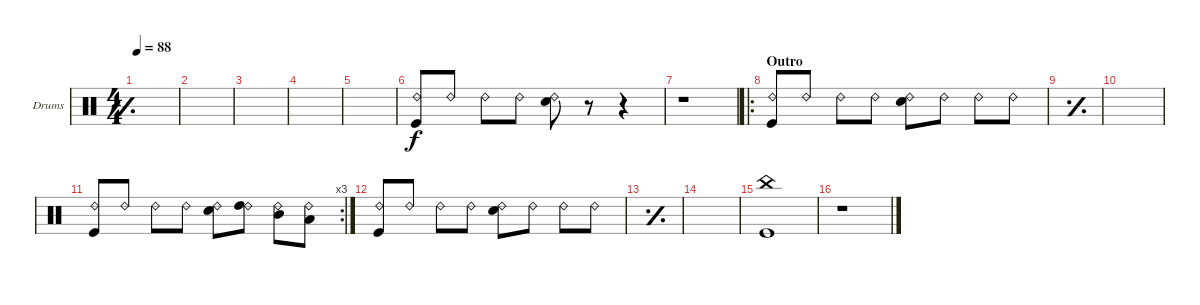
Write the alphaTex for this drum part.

\defaultSystemsLayout 4
\bracketExtendMode groupsimilarinstruments
\firstSystemTrackNameOrientation horizontal
\otherSystemsTrackNameOrientation horizontal
\track ("Drumkit" "Drums") {instrument percussion}
\staff {score}
\articulation defaults
\ts (4 4)
\tempo 88
\clef neutral
\simile simple
\ks c
|
|
|
|
|
("Ride (bell) 2" "Kick (hit)").8 "Ride (bell) 2".8 "Ride (bell) 2".8 "Ride (bell) 2".8 ("Ride (bell) 2" "Snare (hit) 2").8 r.8 r.4 |
r.1 |
\ro
\section ("" "Outro")
("Ride (bell) 2" "Kick (hit)").8 "Ride (bell) 2".8 "Ride (bell) 2".8 "Ride (bell) 2".8 ("Ride (bell) 2" "Snare (hit) 2").8 "Ride (bell) 2".8 "Ride (bell) 2".8 "Ride (bell) 2".8 |
\simile simple
|
|
\rc 3
\simile none
("Ride (bell) 2" "Kick (hit)").8 "Ride (bell) 2".8 "Ride (bell) 2".8 "Ride (bell) 2".8 ("Ride (bell) 2" "Snare (hit) 2").8 ("Ride (bell) 2" "High Tom (hit)").8 ("Ride (bell) 2" "Mid Tom (hit)").8 ("Ride (bell) 2" "Low Tom (hit)").8 |
("Ride (bell) 2" "Kick (hit)").8 "Ride (bell) 2".8 "Ride (bell) 2".8 "Ride (bell) 2".8 ("Ride (bell) 2" "Snare (hit) 2").8 "Ride (bell) 2".8 "Ride (bell) 2".8 "Ride (bell) 2".8 |
\simile simple
|
|
\simile none
("Kick (hit)" "China (hit)").1 |
r.1
